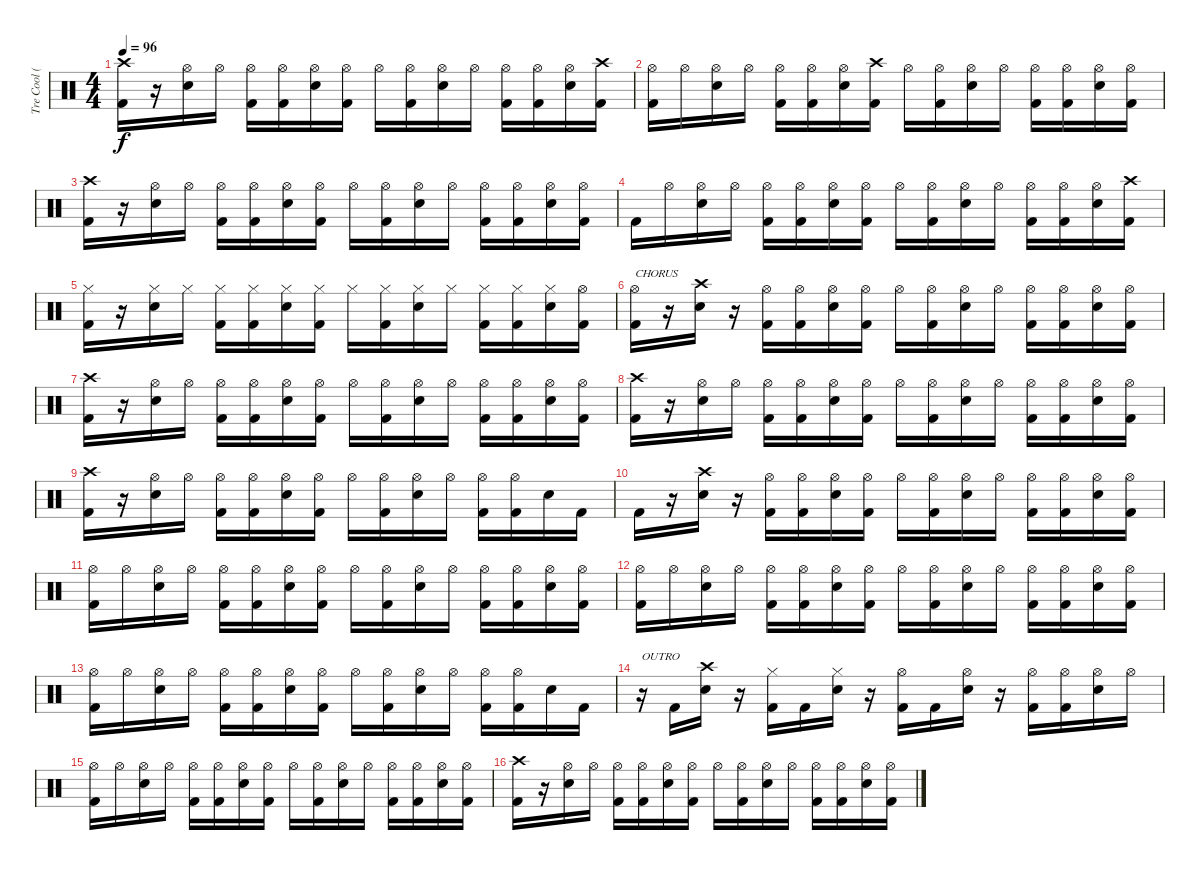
\track ("Tre Cool (Drums)" "Tre Cool (") {instrument percussion}
\staff {score}
\articulation defaults
\ts (4 4)
\tempo 96
\clef neutral
\ks c
("Crash high (hit)" "Kick (hit) 2").16{dy f} r.16 ("Hi-Hat (open)" "Electric Snare (hit)").16 "Hi-Hat (open)".16 ("Hi-Hat (open)" "Kick (hit) 2").16 ("Hi-Hat (open)" "Kick (hit) 2").16 ("Hi-Hat (open)" "Electric Snare (hit)").16 ("Hi-Hat (open)" "Kick (hit) 2").16 "Hi-Hat (open)".16 ("Hi-Hat (open)" "Kick (hit) 2").16 ("Hi-Hat (open)" "Electric Snare (hit)").16 "Hi-Hat (open)".16 ("Hi-Hat (open)" "Kick (hit) 2").16 ("Hi-Hat (open)" "Kick (hit) 2").16 ("Hi-Hat (open)" "Electric Snare (hit)").16 ("Crash high (hit)" "Kick (hit) 2").16 |
("Hi-Hat (open)" "Kick (hit) 2").16 "Hi-Hat (open)".16 ("Hi-Hat (open)" "Electric Snare (hit)").16 "Hi-Hat (open)".16 ("Hi-Hat (open)" "Kick (hit) 2").16 ("Hi-Hat (open)" "Kick (hit) 2").16 ("Hi-Hat (open)" "Electric Snare (hit)").16 ("Crash high (hit)" "Kick (hit) 2").16 "Hi-Hat (open)".16 ("Hi-Hat (open)" "Kick (hit) 2").16 ("Hi-Hat (open)" "Electric Snare (hit)").16 "Hi-Hat (open)".16 ("Hi-Hat (open)" "Kick (hit) 2").16 ("Hi-Hat (open)" "Kick (hit) 2").16 ("Hi-Hat (open)" "Electric Snare (hit)").16 ("Hi-Hat (open)" "Kick (hit) 2").16 |
("Crash high (hit)" "Kick (hit) 2").16 r.16 ("Hi-Hat (open)" "Electric Snare (hit)").16 "Hi-Hat (open)".16 ("Hi-Hat (open)" "Kick (hit) 2").16 ("Hi-Hat (open)" "Kick (hit) 2").16 ("Hi-Hat (open)" "Electric Snare (hit)").16 ("Hi-Hat (open)" "Kick (hit) 2").16 "Hi-Hat (open)".16 ("Hi-Hat (open)" "Kick (hit) 2").16 ("Hi-Hat (open)" "Electric Snare (hit)").16 "Hi-Hat (open)".16 ("Hi-Hat (open)" "Kick (hit) 2").16 ("Hi-Hat (open)" "Kick (hit) 2").16 ("Hi-Hat (open)" "Electric Snare (hit)").16 ("Hi-Hat (open)" "Kick (hit) 2").16 |
"Kick (hit) 2".16 "Hi-Hat (open)".16 ("Hi-Hat (open)" "Electric Snare (hit)").16 "Hi-Hat (open)".16 ("Hi-Hat (open)" "Kick (hit) 2").16 ("Hi-Hat (open)" "Kick (hit) 2").16 ("Hi-Hat (open)" "Electric Snare (hit)").16 ("Hi-Hat (open)" "Kick (hit) 2").16 "Hi-Hat (open)".16 ("Hi-Hat (open)" "Kick (hit) 2").16 ("Hi-Hat (open)" "Electric Snare (hit)").16 "Hi-Hat (open)".16 ("Hi-Hat (open)" "Kick (hit) 2").16 ("Hi-Hat (open)" "Kick (hit) 2").16 ("Hi-Hat (open)" "Electric Snare (hit)").16 ("Crash high (hit)" "Kick (hit) 2").16 |
("Hi-Hat (closed)" "Kick (hit) 2").16 r.16 ("Hi-Hat (closed)" "Electric Snare (hit)").16 "Hi-Hat (closed)".16 ("Hi-Hat (closed)" "Kick (hit) 2").16 ("Hi-Hat (closed)" "Kick (hit) 2").16 ("Hi-Hat (closed)" "Electric Snare (hit)").16 ("Hi-Hat (closed)" "Kick (hit) 2").16 "Hi-Hat (closed)".16 ("Hi-Hat (closed)" "Kick (hit) 2").16 ("Hi-Hat (closed)" "Electric Snare (hit)").16 "Hi-Hat (closed)".16 ("Hi-Hat (closed)" "Kick (hit) 2").16 ("Hi-Hat (closed)" "Kick (hit) 2").16 ("Hi-Hat (closed)" "Electric Snare (hit)").16 ("Hi-Hat (open)" "Kick (hit) 2").16 |
("Hi-Hat (open)" "Kick (hit) 2").16{txt "CHORUS"} r.16 ("Crash high (hit)" "Electric Snare (hit)").16 r.16 ("Hi-Hat (open)" "Kick (hit) 2").16 ("Hi-Hat (open)" "Kick (hit) 2").16 ("Hi-Hat (open)" "Electric Snare (hit)").16 ("Hi-Hat (open)" "Kick (hit) 2").16 "Hi-Hat (open)".16 ("Hi-Hat (open)" "Kick (hit) 2").16 ("Hi-Hat (open)" "Electric Snare (hit)").16 "Hi-Hat (open)".16 ("Hi-Hat (open)" "Kick (hit) 2").16 ("Hi-Hat (open)" "Kick (hit) 2").16 ("Hi-Hat (open)" "Electric Snare (hit)").16 ("Hi-Hat (open)" "Kick (hit) 2").16 |
("Crash high (hit)" "Kick (hit) 2").16 r.16 ("Hi-Hat (open)" "Electric Snare (hit)").16 "Hi-Hat (open)".16 ("Hi-Hat (open)" "Kick (hit) 2").16 ("Hi-Hat (open)" "Kick (hit) 2").16 ("Hi-Hat (open)" "Electric Snare (hit)").16 ("Hi-Hat (open)" "Kick (hit) 2").16 "Hi-Hat (open)".16 ("Hi-Hat (open)" "Kick (hit) 2").16 ("Hi-Hat (open)" "Electric Snare (hit)").16 "Hi-Hat (open)".16 ("Hi-Hat (open)" "Kick (hit) 2").16 ("Hi-Hat (open)" "Kick (hit) 2").16 ("Hi-Hat (open)" "Electric Snare (hit)").16 ("Hi-Hat (open)" "Kick (hit) 2").16 |
("Crash high (hit)" "Kick (hit) 2").16 r.16 ("Hi-Hat (open)" "Electric Snare (hit)").16 "Hi-Hat (open)".16 ("Hi-Hat (open)" "Kick (hit) 2").16 ("Hi-Hat (open)" "Kick (hit) 2").16 ("Hi-Hat (open)" "Electric Snare (hit)").16 ("Hi-Hat (open)" "Kick (hit) 2").16 "Hi-Hat (open)".16 ("Hi-Hat (open)" "Kick (hit) 2").16 ("Hi-Hat (open)" "Electric Snare (hit)").16 "Hi-Hat (open)".16 ("Hi-Hat (open)" "Kick (hit) 2").16 ("Hi-Hat (open)" "Kick (hit) 2").16 ("Hi-Hat (open)" "Electric Snare (hit)").16 ("Hi-Hat (open)" "Kick (hit) 2").16 |
("Crash high (hit)" "Kick (hit) 2").16 r.16 ("Hi-Hat (open)" "Electric Snare (hit)").16 "Hi-Hat (open)".16 ("Hi-Hat (open)" "Kick (hit) 2").16 ("Hi-Hat (open)" "Kick (hit) 2").16 ("Hi-Hat (open)" "Electric Snare (hit)").16 ("Hi-Hat (open)" "Kick (hit) 2").16 "Hi-Hat (open)".16 ("Hi-Hat (open)" "Kick (hit) 2").16 ("Hi-Hat (open)" "Electric Snare (hit)").16 "Hi-Hat (open)".16 ("Hi-Hat (open)" "Kick (hit) 2").16 ("Hi-Hat (open)" "Kick (hit) 2").16 "Electric Snare (hit)".16 "Kick (hit) 2".16 |
"Kick (hit) 2".16 r.16 ("Crash high (hit)" "Electric Snare (hit)").16 r.16 ("Hi-Hat (open)" "Kick (hit) 2").16 ("Hi-Hat (open)" "Kick (hit) 2").16 ("Hi-Hat (open)" "Electric Snare (hit)").16 ("Hi-Hat (open)" "Kick (hit) 2").16 "Hi-Hat (open)".16 ("Hi-Hat (open)" "Kick (hit) 2").16 ("Hi-Hat (open)" "Electric Snare (hit)").16 "Hi-Hat (open)".16 ("Hi-Hat (open)" "Kick (hit) 2").16 ("Hi-Hat (open)" "Kick (hit) 2").16 ("Hi-Hat (open)" "Electric Snare (hit)").16 ("Hi-Hat (open)" "Kick (hit) 2").16 |
("Hi-Hat (open)" "Kick (hit) 2").16 "Hi-Hat (open)".16 ("Hi-Hat (open)" "Electric Snare (hit)").16 "Hi-Hat (open)".16 ("Hi-Hat (open)" "Kick (hit) 2").16 ("Hi-Hat (open)" "Kick (hit) 2").16 ("Hi-Hat (open)" "Electric Snare (hit)").16 ("Hi-Hat (open)" "Kick (hit) 2").16 "Hi-Hat (open)".16 ("Hi-Hat (open)" "Kick (hit) 2").16 ("Hi-Hat (open)" "Electric Snare (hit)").16 "Hi-Hat (open)".16 ("Hi-Hat (open)" "Kick (hit) 2").16 ("Hi-Hat (open)" "Kick (hit) 2").16 ("Hi-Hat (open)" "Electric Snare (hit)").16 ("Hi-Hat (open)" "Kick (hit) 2").16 |
("Hi-Hat (open)" "Kick (hit) 2").16 "Hi-Hat (open)".16 ("Hi-Hat (open)" "Electric Snare (hit)").16 "Hi-Hat (open)".16 ("Hi-Hat (open)" "Kick (hit) 2").16 ("Hi-Hat (open)" "Kick (hit) 2").16 ("Hi-Hat (open)" "Electric Snare (hit)").16 ("Hi-Hat (open)" "Kick (hit) 2").16 "Hi-Hat (open)".16 ("Hi-Hat (open)" "Kick (hit) 2").16 ("Hi-Hat (open)" "Electric Snare (hit)").16 "Hi-Hat (open)".16 ("Hi-Hat (open)" "Kick (hit) 2").16 ("Hi-Hat (open)" "Kick (hit) 2").16 ("Hi-Hat (open)" "Electric Snare (hit)").16 ("Hi-Hat (open)" "Kick (hit) 2").16 |
("Hi-Hat (open)" "Kick (hit) 2").16 "Hi-Hat (open)".16 ("Hi-Hat (open)" "Electric Snare (hit)").16 "Hi-Hat (open)".16 ("Hi-Hat (open)" "Kick (hit) 2").16 ("Hi-Hat (open)" "Kick (hit) 2").16 ("Hi-Hat (open)" "Electric Snare (hit)").16 ("Hi-Hat (open)" "Kick (hit) 2").16 "Hi-Hat (open)".16 ("Hi-Hat (open)" "Kick (hit) 2").16 ("Hi-Hat (open)" "Electric Snare (hit)").16 "Hi-Hat (open)".16 ("Hi-Hat (open)" "Kick (hit) 2").16 ("Hi-Hat (open)" "Kick (hit) 2").16 "Electric Snare (hit)".16 "Kick (hit) 2".16 |
r.16{txt "OUTRO"} "Kick (hit) 2".16 ("Crash high (hit)" "Electric Snare (hit)").16 r.16 ("Hi-Hat (closed)" "Kick (hit) 2").16 "Kick (hit) 2".16 ("Hi-Hat (closed)" "Electric Snare (hit)").16 r.16 ("Hi-Hat (open)" "Kick (hit) 2").16 "Kick (hit) 2".16 ("Hi-Hat (open)" "Electric Snare (hit)").16 r.16 ("Hi-Hat (open)" "Kick (hit) 2").16 ("Hi-Hat (open)" "Kick (hit) 2").16 ("Hi-Hat (open)" "Electric Snare (hit)").16 "Hi-Hat (open)".16 |
("Hi-Hat (open)" "Kick (hit) 2").16 "Hi-Hat (open)".16 ("Hi-Hat (open)" "Electric Snare (hit)").16 "Hi-Hat (open)".16 ("Hi-Hat (open)" "Kick (hit) 2").16 ("Hi-Hat (open)" "Kick (hit) 2").16 ("Hi-Hat (open)" "Electric Snare (hit)").16 ("Hi-Hat (open)" "Kick (hit) 2").16 "Hi-Hat (open)".16 ("Hi-Hat (open)" "Kick (hit) 2").16 ("Hi-Hat (open)" "Electric Snare (hit)").16 "Hi-Hat (open)".16 ("Hi-Hat (open)" "Kick (hit) 2").16 ("Hi-Hat (open)" "Kick (hit) 2").16 ("Hi-Hat (open)" "Electric Snare (hit)").16 ("Hi-Hat (open)" "Kick (hit) 2").16 |
("Crash high (hit)" "Kick (hit) 2").16 r.16 ("Hi-Hat (open)" "Electric Snare (hit)").16 "Hi-Hat (open)".16 ("Hi-Hat (open)" "Kick (hit) 2").16 ("Hi-Hat (open)" "Kick (hit) 2").16 ("Hi-Hat (open)" "Electric Snare (hit)").16 ("Hi-Hat (open)" "Kick (hit) 2").16 "Hi-Hat (open)".16 ("Hi-Hat (open)" "Kick (hit) 2").16 ("Hi-Hat (open)" "Electric Snare (hit)").16 "Hi-Hat (open)".16 ("Hi-Hat (open)" "Kick (hit) 2").16 ("Hi-Hat (open)" "Kick (hit) 2").16 ("Hi-Hat (open)" "Electric Snare (hit)").16 ("Hi-Hat (open)" "Kick (hit) 2").16
